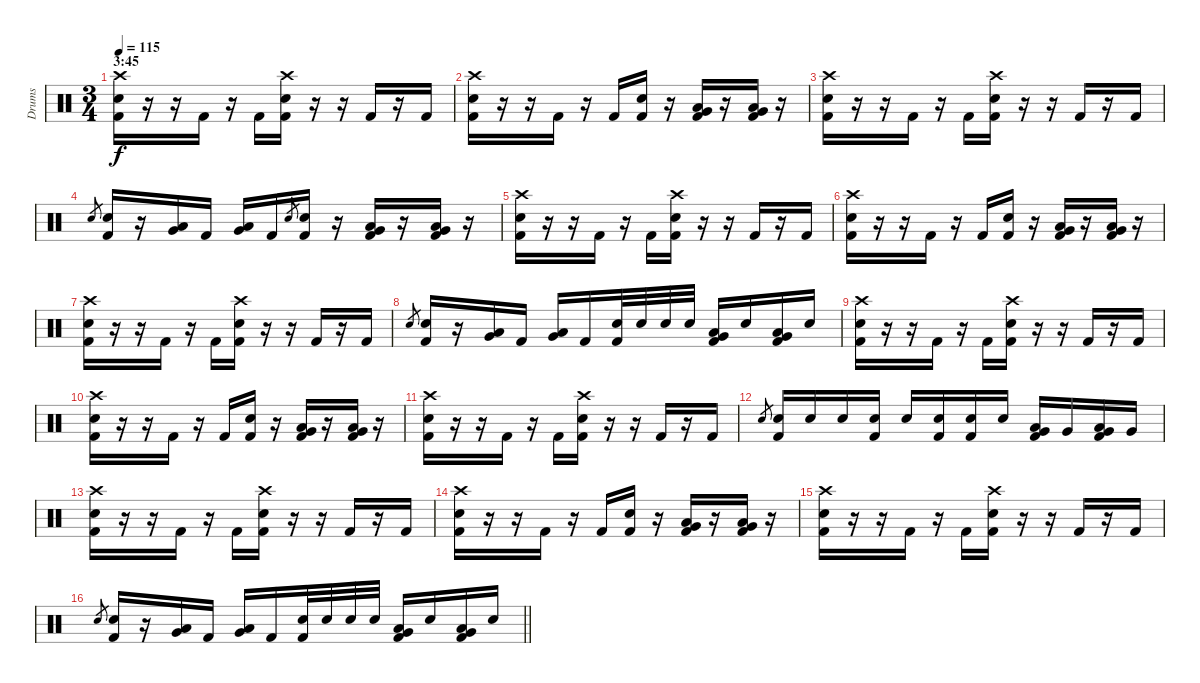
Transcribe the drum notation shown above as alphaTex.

\track ("Drums" "Drums") {instrument percussion}
\staff {score}
\articulation defaults
\ts (3 4)
\section ("" "3:45")
\tempo 115
\clef neutral
\ks c
("Crash high (hit)" "Electric Snare (hit)" "Kick (hit) 2").16{dy f} r.16 r.16 "Kick (hit) 2".16 r.16 "Kick (hit) 2".16 ("Crash high (hit)" "Electric Snare (hit)" "Kick (hit) 2").16 r.16 r.16 "Kick (hit) 2".16 r.16 "Kick (hit) 2".16 |
("Crash high (hit)" "Electric Snare (hit)" "Kick (hit) 2").16 r.16 r.16 "Kick (hit) 2".16 r.16 "Kick (hit) 2".16 ("Electric Snare (hit)" "Kick (hit) 2").16 r.16 ("Low Tom (hit)" "Very Low Tom (hit)" "Kick (hit) 2").16 r.16 ("Very Low Tom (hit)" "Low Floor Tom (hit)" "Kick (hit) 2").16 r.16 |
("Crash high (hit)" "Electric Snare (hit)" "Kick (hit) 2").16 r.16 r.16 "Kick (hit) 2".16 r.16 "Kick (hit) 2".16 ("Crash high (hit)" "Electric Snare (hit)" "Kick (hit) 2").16 r.16 r.16 "Kick (hit) 2".16 r.16 "Kick (hit) 2".16 |
"Electric Snare (hit)".8{gr} ("Electric Snare (hit)" "Kick (hit) 2").16 r.16 ("Low Tom (hit)" "Very Low Tom (hit)").16 "Kick (hit) 2".16 ("Low Floor Tom (hit)" "Very Low Tom (hit)").16 "Kick (hit) 2".16 "Electric Snare (hit)".8{gr} ("Electric Snare (hit)" "Kick (hit) 2").16 r.16 ("Low Tom (hit)" "Very Low Tom (hit)" "Kick (hit) 2").16 r.16 ("Very Low Tom (hit)" "Low Floor Tom (hit)" "Kick (hit) 2").16 r.16 |
("Crash high (hit)" "Electric Snare (hit)" "Kick (hit) 2").16 r.16 r.16 "Kick (hit) 2".16 r.16 "Kick (hit) 2".16 ("Crash high (hit)" "Electric Snare (hit)" "Kick (hit) 2").16 r.16 r.16 "Kick (hit) 2".16 r.16 "Kick (hit) 2".16 |
("Crash high (hit)" "Electric Snare (hit)" "Kick (hit) 2").16 r.16 r.16 "Kick (hit) 2".16 r.16 "Kick (hit) 2".16 ("Electric Snare (hit)" "Kick (hit) 2").16 r.16 ("Low Tom (hit)" "Very Low Tom (hit)" "Kick (hit) 2").16 r.16 ("Very Low Tom (hit)" "Low Floor Tom (hit)" "Kick (hit) 2").16 r.16 |
("Crash high (hit)" "Electric Snare (hit)" "Kick (hit) 2").16 r.16 r.16 "Kick (hit) 2".16 r.16 "Kick (hit) 2".16 ("Crash high (hit)" "Electric Snare (hit)" "Kick (hit) 2").16 r.16 r.16 "Kick (hit) 2".16 r.16 "Kick (hit) 2".16 |
"Electric Snare (hit)".8{gr} ("Electric Snare (hit)" "Kick (hit) 2").16 r.16 ("Low Tom (hit)" "Very Low Tom (hit)").16 "Kick (hit) 2".16 ("Low Floor Tom (hit)" "Very Low Tom (hit)").16 "Kick (hit) 2".16 ("Electric Snare (hit)" "Kick (hit) 2").32 "Electric Snare (hit)".32 "Electric Snare (hit)".32 "Electric Snare (hit)".32 ("Low Tom (hit)" "Very Low Tom (hit)" "Kick (hit) 2").16 "Electric Snare (hit)".16 ("Very Low Tom (hit)" "Low Floor Tom (hit)" "Kick (hit) 2").16 "Electric Snare (hit)".16 |
("Crash high (hit)" "Electric Snare (hit)" "Kick (hit) 2").16 r.16 r.16 "Kick (hit) 2".16 r.16 "Kick (hit) 2".16 ("Crash high (hit)" "Electric Snare (hit)" "Kick (hit) 2").16 r.16 r.16 "Kick (hit) 2".16 r.16 "Kick (hit) 2".16 |
("Crash high (hit)" "Electric Snare (hit)" "Kick (hit) 2").16 r.16 r.16 "Kick (hit) 2".16 r.16 "Kick (hit) 2".16 ("Electric Snare (hit)" "Kick (hit) 2").16 r.16 ("Low Tom (hit)" "Very Low Tom (hit)" "Kick (hit) 2").16 r.16 ("Very Low Tom (hit)" "Low Floor Tom (hit)" "Kick (hit) 2").16 r.16 |
("Crash high (hit)" "Electric Snare (hit)" "Kick (hit) 2").16 r.16 r.16 "Kick (hit) 2".16 r.16 "Kick (hit) 2".16 ("Crash high (hit)" "Electric Snare (hit)" "Kick (hit) 2").16 r.16 r.16 "Kick (hit) 2".16 r.16 "Kick (hit) 2".16 |
"Electric Snare (hit)".8{gr} ("Electric Snare (hit)" "Kick (hit) 2").16 "Electric Snare (hit)".16 "Electric Snare (hit)".16 ("Electric Snare (hit)" "Kick (hit) 2").16 "Electric Snare (hit)".16 ("Electric Snare (hit)" "Kick (hit) 2").16 ("Electric Snare (hit)" "Kick (hit) 2").16 "Electric Snare (hit)".16 ("Low Tom (hit)" "Very Low Tom (hit)" "Kick (hit) 2").16 "Very Low Tom (hit)".16 ("Very Low Tom (hit)" "Low Floor Tom (hit)" "Kick (hit) 2").16 "Very Low Tom (hit)".16 |
("Crash high (hit)" "Electric Snare (hit)" "Kick (hit) 2").16 r.16 r.16 "Kick (hit) 2".16 r.16 "Kick (hit) 2".16 ("Crash high (hit)" "Electric Snare (hit)" "Kick (hit) 2").16 r.16 r.16 "Kick (hit) 2".16 r.16 "Kick (hit) 2".16 |
("Crash high (hit)" "Electric Snare (hit)" "Kick (hit) 2").16 r.16 r.16 "Kick (hit) 2".16 r.16 "Kick (hit) 2".16 ("Electric Snare (hit)" "Kick (hit) 2").16 r.16 ("Low Tom (hit)" "Very Low Tom (hit)" "Kick (hit) 2").16 r.16 ("Very Low Tom (hit)" "Low Floor Tom (hit)" "Kick (hit) 2").16 r.16 |
("Crash high (hit)" "Electric Snare (hit)" "Kick (hit) 2").16 r.16 r.16 "Kick (hit) 2".16 r.16 "Kick (hit) 2".16 ("Crash high (hit)" "Electric Snare (hit)" "Kick (hit) 2").16 r.16 r.16 "Kick (hit) 2".16 r.16 "Kick (hit) 2".16 |
\barLineRight lightlight "Electric Snare (hit)".8{gr}
("Electric Snare (hit)" "Kick (hit) 2").16 r.16 ("Low Tom (hit)" "Very Low Tom (hit)").16 "Kick (hit) 2".16 ("Low Floor Tom (hit)" "Very Low Tom (hit)").16 "Kick (hit) 2".16 ("Electric Snare (hit)" "Kick (hit) 2").32 "Electric Snare (hit)".32 "Electric Snare (hit)".32 "Electric Snare (hit)".32 ("Low Tom (hit)" "Very Low Tom (hit)" "Kick (hit) 2").16 "Electric Snare (hit)".16 ("Very Low Tom (hit)" "Low Floor Tom (hit)" "Kick (hit) 2").16 "Electric Snare (hit)".16
